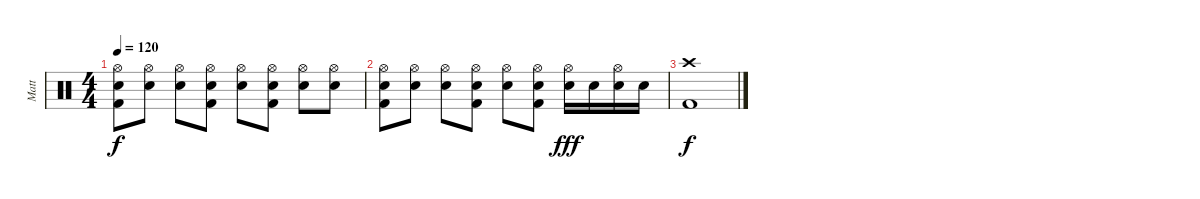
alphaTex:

\track ("Matt" "Matt") {instrument percussion}
\staff {score}
\articulation defaults
\ts (4 4)
\tempo 120
\clef neutral
\ks c
("Snare (hit) 2" "Hi-Hat (open)" "Kick (hit) 2").8{dy f} ("Snare (hit) 2" "Hi-Hat (open)").8 ("Hi-Hat (open)" "Snare (hit) 2").8 ("Snare (hit) 2" "Hi-Hat (open)" "Kick (hit) 2").8 ("Snare (hit) 2" "Hi-Hat (open)").8 ("Snare (hit) 2" "Hi-Hat (open)" "Kick (hit) 2").8 ("Hi-Hat (open)" "Snare (hit) 2").8 ("Snare (hit) 2" "Hi-Hat (open)").8 |
("Snare (hit) 2" "Hi-Hat (open)" "Kick (hit) 2").8 ("Snare (hit) 2" "Hi-Hat (open)").8 ("Hi-Hat (open)" "Snare (hit) 2").8 ("Snare (hit) 2" "Hi-Hat (open)" "Kick (hit) 2").8 ("Snare (hit) 2" "Hi-Hat (open)").8 ("Snare (hit) 2" "Hi-Hat (open)" "Kick (hit) 2").8 ("Hi-Hat (open)" "Electric Snare (hit)").16{dy fff} "Electric Snare (hit)".16 ("Hi-Hat (open)" "Electric Snare (hit)").16 "Electric Snare (hit)".16 |
("Crash high (hit)" "Kick (hit) 2").1{dy f}
